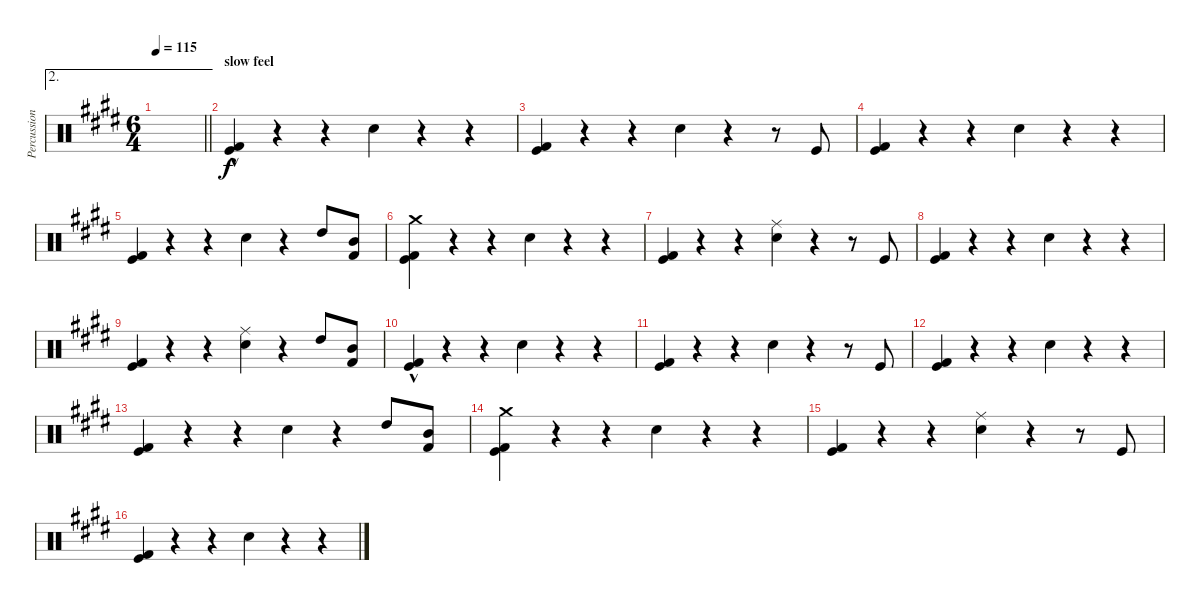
\track ("Percussion" "Percussion") {instrument percussion}
\staff {score}
\articulation defaults
\ae 2
\ts (6 4)
\tempo 115
\clef neutral
\barLineRight lightlight
\ks c#minor
|
\section ("" "slow feel")
("Kick (hit) 2"{hac} "Kick (hit)"{hac}).4 r.4 r.4 "Snare (hit) 2".4 r.4 r.4 |
("Kick (hit) 2" "Kick (hit)").4 r.4 r.4 "Snare (hit) 2".4 r.4 r.8 "Kick (hit)".8 |
("Kick (hit) 2" "Kick (hit)").4 r.4 r.4 "Snare (hit) 2".4 r.4 r.4 |
("Kick (hit) 2" "Kick (hit)").4 r.4 r.4 "Snare (hit) 2".4 r.4 "High Tom (hit)".8 ("Mid Tom (hit)" "Kick (hit) 2").8 |
("Crash medium (hit)" "Kick (hit) 2" "Kick (hit)").4 r.4 r.4 "Snare (hit) 2".4 r.4 r.4 |
("Kick (hit) 2" "Kick (hit)").4 r.4 r.4 ("Ride (middle)" "Snare (hit) 2").4 r.4 r.8 "Kick (hit)".8 |
("Kick (hit) 2" "Kick (hit)").4 r.4 r.4 "Snare (hit) 2".4 r.4 r.4 |
("Kick (hit) 2" "Kick (hit)").4 r.4 r.4 ("Ride (middle)" "Snare (hit) 2").4 r.4 "High Tom (hit)".8 ("Mid Tom (hit)" "Kick (hit) 2").8 |
("Kick (hit) 2"{hac} "Kick (hit)"{hac}).4 r.4 r.4 "Snare (hit) 2".4 r.4 r.4 |
("Kick (hit) 2" "Kick (hit)").4 r.4 r.4 "Snare (hit) 2".4 r.4 r.8 "Kick (hit)".8 |
("Kick (hit) 2" "Kick (hit)").4 r.4 r.4 "Snare (hit) 2".4 r.4 r.4 |
("Kick (hit) 2" "Kick (hit)").4 r.4 r.4 "Snare (hit) 2".4 r.4 "High Tom (hit)".8 ("Mid Tom (hit)" "Kick (hit) 2").8 |
("Crash medium (hit)" "Kick (hit) 2" "Kick (hit)").4 r.4 r.4 "Snare (hit) 2".4 r.4 r.4 |
("Kick (hit) 2" "Kick (hit)").4 r.4 r.4 ("Ride (middle)" "Snare (hit) 2").4 r.4 r.8 "Kick (hit)".8 |
("Kick (hit) 2" "Kick (hit)").4 r.4 r.4 "Snare (hit) 2".4 r.4 r.4
